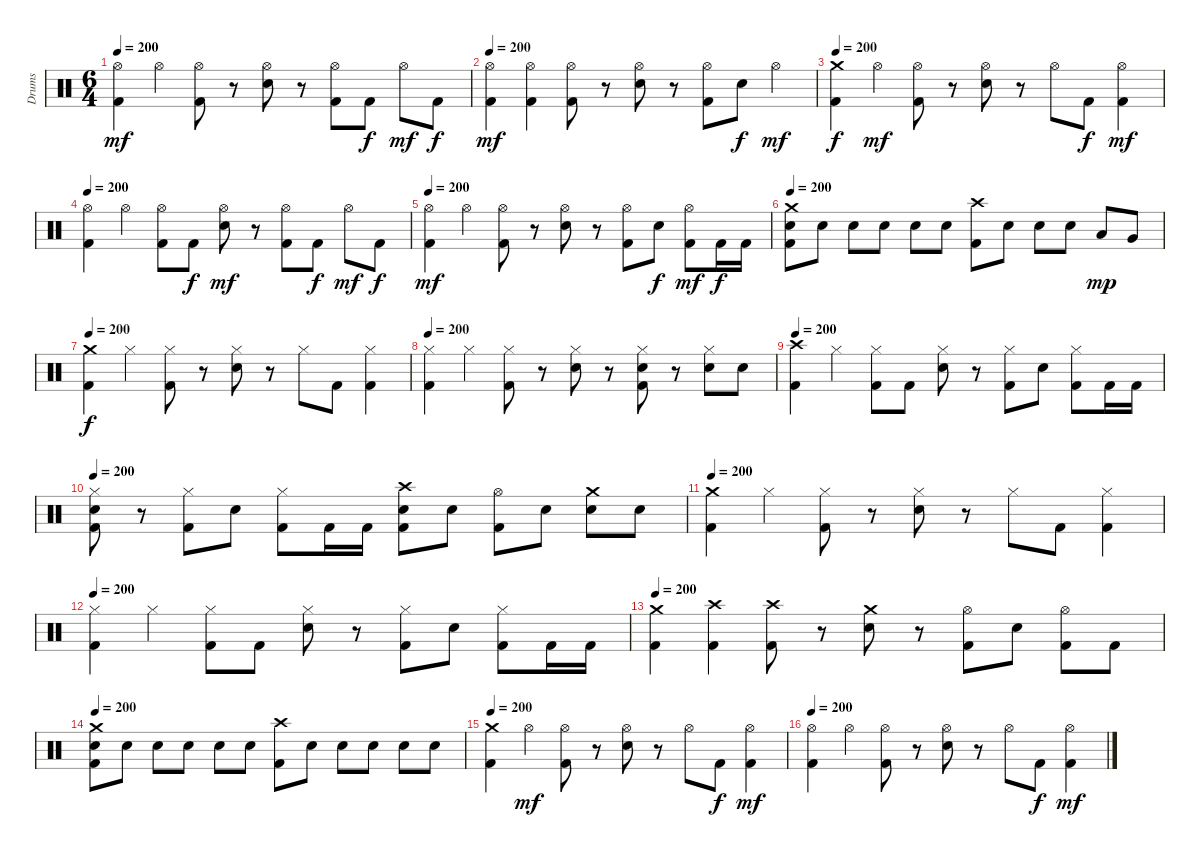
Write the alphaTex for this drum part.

\track ("Drums" "Drums") {instrument percussion}
\staff {score}
\articulation defaults
\ts (6 4)
\tempo 200
\clef neutral
\ks c
("Hi-Hat (open)" "Kick (hit) 2").4{dy mf} "Hi-Hat (open)".4 ("Hi-Hat (open)" "Kick (hit) 2").8 r.8 ("Hi-Hat (open)" "Electric Snare (hit)").8 r.8 ("Hi-Hat (open)" "Kick (hit) 2").8 "Kick (hit) 2".8{dy f} "Hi-Hat (open)".8{dy mf} "Kick (hit) 2".8{dy f} |
\tempo 200
("Hi-Hat (open)" "Kick (hit) 2").4{dy mf} ("Hi-Hat (open)" "Kick (hit) 2").4 ("Hi-Hat (open)" "Kick (hit) 2").8 r.8 ("Hi-Hat (open)" "Electric Snare (hit)").8 r.8 ("Hi-Hat (open)" "Kick (hit) 2").8 "Electric Snare (hit)".8{dy f} "Hi-Hat (open)".4{dy mf} |
\tempo 200
("Crash medium (hit)" "Kick (hit) 2").4{dy f} "Hi-Hat (open)".4{dy mf} ("Hi-Hat (open)" "Kick (hit) 2").8 r.8 ("Hi-Hat (open)" "Electric Snare (hit)").8 r.8 "Hi-Hat (open)".8 "Kick (hit) 2".8{dy f} ("Hi-Hat (open)" "Kick (hit) 2").4{dy mf} |
\tempo 200
("Hi-Hat (open)" "Kick (hit) 2").4 "Hi-Hat (open)".4 ("Hi-Hat (open)" "Kick (hit) 2").8 "Kick (hit) 2".8{dy f} ("Hi-Hat (open)" "Electric Snare (hit)").8{dy mf} r.8 ("Hi-Hat (open)" "Kick (hit) 2").8 "Kick (hit) 2".8{dy f} "Hi-Hat (open)".8{dy mf} "Kick (hit) 2".8{dy f} |
\tempo 200
("Hi-Hat (open)" "Kick (hit) 2").4{dy mf} "Hi-Hat (open)".4 ("Hi-Hat (open)" "Kick (hit) 2").8 r.8 ("Hi-Hat (open)" "Electric Snare (hit)").8 r.8 ("Hi-Hat (open)" "Kick (hit) 2").8 "Electric Snare (hit)".8{dy f} ("Hi-Hat (open)" "Kick (hit) 2").8{dy mf} "Kick (hit) 2".16{dy f} "Kick (hit) 2".16 |
\tempo 200
("Crash medium (hit)" "Electric Snare (hit)" "Kick (hit) 2").8 "Electric Snare (hit)".8 "Electric Snare (hit)".8 "Electric Snare (hit)".8 "Electric Snare (hit)".8 "Electric Snare (hit)".8 ("Crash high (hit)" "Kick (hit) 2").8 "Electric Snare (hit)".8 "Electric Snare (hit)".8 "Electric Snare (hit)".8 "Low Tom (hit)".8{dy mp} "Very Low Tom (hit)".8 |
\tempo 200
("Crash medium (hit)" "Kick (hit) 2").4{dy f} "Hi-Hat (closed)".4 ("Hi-Hat (closed)" "Kick (hit) 2").8 r.8 ("Hi-Hat (closed)" "Electric Snare (hit)").8 r.8 "Hi-Hat (closed)".8 "Kick (hit) 2".8 ("Hi-Hat (closed)" "Kick (hit) 2").4 |
\tempo 200
("Hi-Hat (closed)" "Kick (hit) 2").4 "Hi-Hat (closed)".4 ("Hi-Hat (closed)" "Kick (hit) 2").8 r.8 ("Hi-Hat (closed)" "Electric Snare (hit)").8 r.8 ("Hi-Hat (closed)" "Electric Snare (hit)" "Kick (hit) 2").8 r.8 ("Hi-Hat (closed)" "Electric Snare (hit)").8 "Electric Snare (hit)".8 |
\tempo 200
("Crash high (hit)" "Kick (hit) 2").4 "Hi-Hat (closed)".4 ("Hi-Hat (closed)" "Kick (hit) 2").8 "Kick (hit) 2".8 ("Hi-Hat (closed)" "Electric Snare (hit)").8 r.8 ("Hi-Hat (closed)" "Kick (hit) 2").8 "Electric Snare (hit)".8 ("Hi-Hat (closed)" "Kick (hit) 2").8 "Kick (hit) 2".16 "Kick (hit) 2".16 |
\tempo 200
("Hi-Hat (closed)" "Electric Snare (hit)" "Kick (hit) 2").8 r.8 ("Hi-Hat (closed)" "Kick (hit) 2").8 "Electric Snare (hit)".8 ("Hi-Hat (closed)" "Kick (hit) 2").8 "Kick (hit) 2".16 "Kick (hit) 2".16 ("Crash high (hit)" "Electric Snare (hit)" "Kick (hit) 2").8 "Electric Snare (hit)".8 ("Hi-Hat (open)" "Kick (hit) 2").8 "Electric Snare (hit)".8 ("Crash medium (hit)" "Electric Snare (hit)").8 "Electric Snare (hit)".8 |
\tempo 200
("Crash medium (hit)" "Kick (hit) 2").4 "Hi-Hat (closed)".4 ("Hi-Hat (closed)" "Kick (hit) 2").8 r.8 ("Hi-Hat (closed)" "Electric Snare (hit)").8 r.8 "Hi-Hat (closed)".8 "Kick (hit) 2".8 ("Hi-Hat (closed)" "Kick (hit) 2").4 |
\tempo 200
("Hi-Hat (closed)" "Kick (hit) 2").4 "Hi-Hat (closed)".4 ("Hi-Hat (closed)" "Kick (hit) 2").8 "Kick (hit) 2".8 ("Hi-Hat (closed)" "Electric Snare (hit)").8 r.8 ("Hi-Hat (closed)" "Kick (hit) 2").8 "Electric Snare (hit)".8 ("Hi-Hat (closed)" "Kick (hit) 2").8 "Kick (hit) 2".16 "Kick (hit) 2".16 |
\tempo 200
("Crash medium (hit)" "Kick (hit) 2").4 ("Crash high (hit)" "Kick (hit) 2").4 ("Crash high (hit)" "Kick (hit) 2").8 r.8 ("Crash medium (hit)" "Electric Snare (hit)").8 r.8 ("Hi-Hat (open)" "Kick (hit) 2").8 "Electric Snare (hit)".8 ("Hi-Hat (open)" "Kick (hit) 2").8 "Kick (hit) 2".8 |
\tempo 200
("Crash medium (hit)" "Electric Snare (hit)" "Kick (hit) 2").8 "Electric Snare (hit)".8 "Electric Snare (hit)".8 "Electric Snare (hit)".8 "Electric Snare (hit)".8 "Electric Snare (hit)".8 ("Crash high (hit)" "Kick (hit) 2").8 "Electric Snare (hit)".8 "Electric Snare (hit)".8 "Electric Snare (hit)".8 "Electric Snare (hit)".8 "Electric Snare (hit)".8 |
\tempo 200
("Crash medium (hit)" "Kick (hit) 2").4 "Hi-Hat (open)".4{dy mf} ("Hi-Hat (open)" "Kick (hit) 2").8 r.8 ("Hi-Hat (open)" "Electric Snare (hit)").8 r.8 "Hi-Hat (open)".8 "Kick (hit) 2".8{dy f} ("Hi-Hat (open)" "Kick (hit) 2").4{dy mf} |
\tempo 200
("Hi-Hat (open)" "Kick (hit) 2").4 "Hi-Hat (open)".4 ("Hi-Hat (open)" "Kick (hit) 2").8 r.8 ("Hi-Hat (open)" "Electric Snare (hit)").8 r.8 "Hi-Hat (open)".8 "Kick (hit) 2".8{dy f} ("Hi-Hat (open)" "Kick (hit) 2").4{dy mf}
